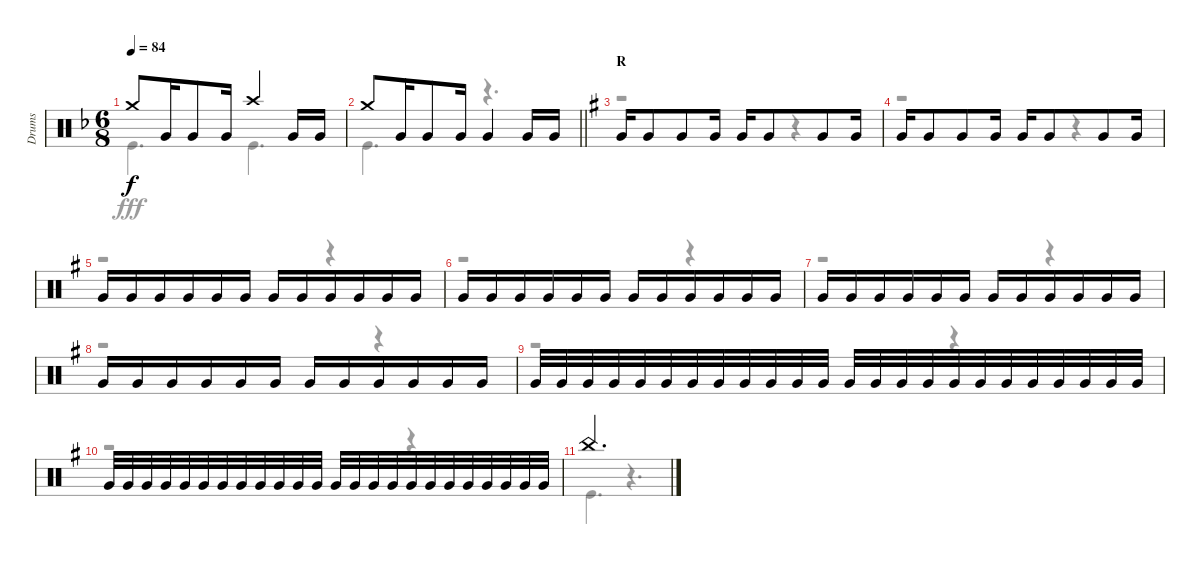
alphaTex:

\track ("Drums" "Drums") {instrument percussion}
\staff {score}
\articulation defaults
\voice
\ts (6 8)
\tempo 84
\clef neutral
\ks f "Crash medium (hit)".8{dy f} "Very Low Tom (hit)".16 "Very Low Tom (hit)".8 "Very Low Tom (hit)".16 "Crash high (hit)".4 "Very Low Tom (hit)".16 "Very Low Tom (hit)".16
|
\barLineRight lightlight "Crash medium (hit)".8 "Very Low Tom (hit)".16 "Very Low Tom (hit)".8 "Very Low Tom (hit)".16 "Very Low Tom (hit)".4 "Very Low Tom (hit)".16 "Very Low Tom (hit)".16
|
\section ("" "R")
\ks g "Very Low Tom (hit)".16 "Very Low Tom (hit)".8 "Very Low Tom (hit)".8 "Very Low Tom (hit)".16 "Very Low Tom (hit)".16 "Very Low Tom (hit)".8 "Very Low Tom (hit)".8 "Very Low Tom (hit)".16
|
"Very Low Tom (hit)".16 "Very Low Tom (hit)".8 "Very Low Tom (hit)".8 "Very Low Tom (hit)".16 "Very Low Tom (hit)".16 "Very Low Tom (hit)".8 "Very Low Tom (hit)".8 "Very Low Tom (hit)".16 |
"Very Low Tom (hit)".16 "Very Low Tom (hit)".16 "Very Low Tom (hit)".16 "Very Low Tom (hit)".16 "Very Low Tom (hit)".16 "Very Low Tom (hit)".16 "Very Low Tom (hit)".16 "Very Low Tom (hit)".16 "Very Low Tom (hit)".16 "Very Low Tom (hit)".16 "Very Low Tom (hit)".16 "Very Low Tom (hit)".16 |
"Very Low Tom (hit)".16 "Very Low Tom (hit)".16 "Very Low Tom (hit)".16 "Very Low Tom (hit)".16 "Very Low Tom (hit)".16 "Very Low Tom (hit)".16 "Very Low Tom (hit)".16 "Very Low Tom (hit)".16 "Very Low Tom (hit)".16 "Very Low Tom (hit)".16 "Very Low Tom (hit)".16 "Very Low Tom (hit)".16 |
"Very Low Tom (hit)".16 "Very Low Tom (hit)".16 "Very Low Tom (hit)".16 "Very Low Tom (hit)".16 "Very Low Tom (hit)".16 "Very Low Tom (hit)".16 "Very Low Tom (hit)".16 "Very Low Tom (hit)".16 "Very Low Tom (hit)".16 "Very Low Tom (hit)".16 "Very Low Tom (hit)".16 "Very Low Tom (hit)".16 |
"Very Low Tom (hit)".16 "Very Low Tom (hit)".16 "Very Low Tom (hit)".16 "Very Low Tom (hit)".16 "Very Low Tom (hit)".16 "Very Low Tom (hit)".16 "Very Low Tom (hit)".16 "Very Low Tom (hit)".16 "Very Low Tom (hit)".16 "Very Low Tom (hit)".16 "Very Low Tom (hit)".16 "Very Low Tom (hit)".16 |
"Very Low Tom (hit)".32 "Very Low Tom (hit)".32 "Very Low Tom (hit)".32 "Very Low Tom (hit)".32 "Very Low Tom (hit)".32 "Very Low Tom (hit)".32 "Very Low Tom (hit)".32 "Very Low Tom (hit)".32 "Very Low Tom (hit)".32 "Very Low Tom (hit)".32 "Very Low Tom (hit)".32 "Very Low Tom (hit)".32 "Very Low Tom (hit)".32 "Very Low Tom (hit)".32 "Very Low Tom (hit)".32 "Very Low Tom (hit)".32 "Very Low Tom (hit)".32 "Very Low Tom (hit)".32 "Very Low Tom (hit)".32 "Very Low Tom (hit)".32 "Very Low Tom (hit)".32 "Very Low Tom (hit)".32 "Very Low Tom (hit)".32 "Very Low Tom (hit)".32 |
"Very Low Tom (hit)".32 "Very Low Tom (hit)".32 "Very Low Tom (hit)".32 "Very Low Tom (hit)".32 "Very Low Tom (hit)".32 "Very Low Tom (hit)".32 "Very Low Tom (hit)".32 "Very Low Tom (hit)".32 "Very Low Tom (hit)".32 "Very Low Tom (hit)".32 "Very Low Tom (hit)".32 "Very Low Tom (hit)".32 "Very Low Tom (hit)".32 "Very Low Tom (hit)".32 "Very Low Tom (hit)".32 "Very Low Tom (hit)".32 "Very Low Tom (hit)".32 "Very Low Tom (hit)".32 "Very Low Tom (hit)".32 "Very Low Tom (hit)".32 "Very Low Tom (hit)".32 "Very Low Tom (hit)".32 "Very Low Tom (hit)".32 "Very Low Tom (hit)".32 |
"China (hit)".2{d}
\voice
\clef neutral
\ottava regular
\simile none
\ks f "Kick (hit)".4{d dy fff} "Kick (hit)".4{d}
|
\barLineRight lightlight "Kick (hit)".4{d}
r.4{d} |
\ks g
r.2 r.4 |
r.2 r.4 |
r.2 r.4 |
r.2 r.4 |
r.2 r.4 |
r.2 r.4 |
r.2 r.4 |
r.2 r.4 |
"Kick (hit)".4{d} r.4{d}
